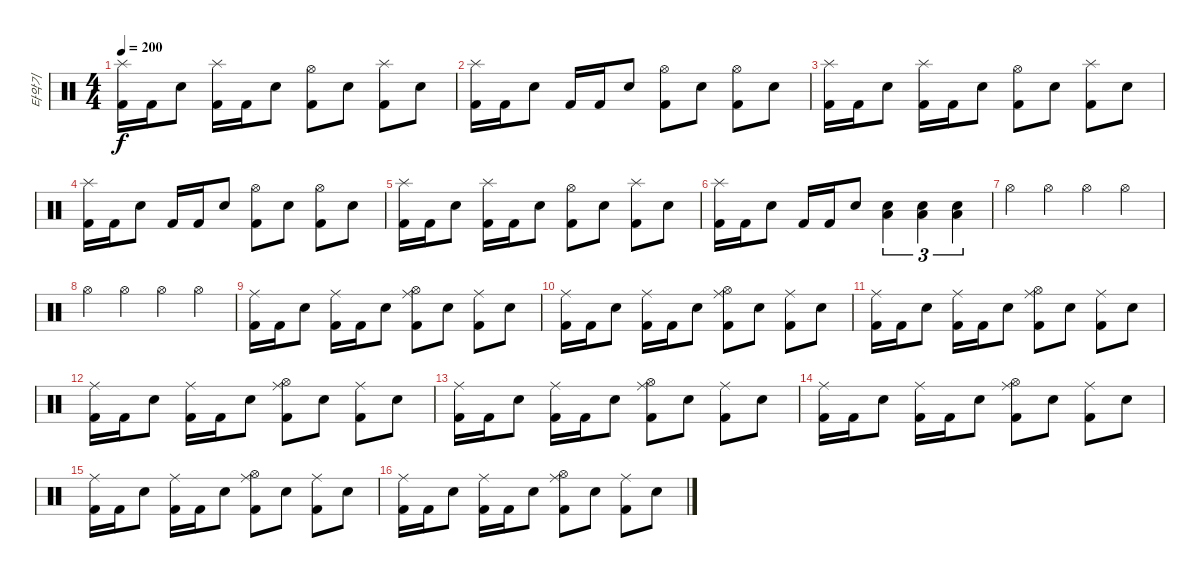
\track ("타악기" "타악기") {instrument percussion}
\staff {score}
\articulation defaults
\ts (4 4)
\tempo 200
\clef neutral
\ks c
("Splash (hit)" "Kick (hit) 2").16{dy f} "Kick (hit) 2".16 "Snare (hit) 2".8 ("Splash (hit)" "Kick (hit) 2").16 "Kick (hit) 2".16 "Snare (hit) 2".8 ("Hi-Hat (open)" "Kick (hit) 2").8 "Snare (hit) 2".8 ("Splash (hit)" "Kick (hit) 2").8 "Snare (hit) 2".8 |
("Splash (hit)" "Kick (hit) 2").16 "Kick (hit) 2".16 "Snare (hit) 2".8 "Kick (hit) 2".16 "Kick (hit) 2".16 "Snare (hit) 2".8 ("Hi-Hat (open)" "Kick (hit) 2").8 "Snare (hit) 2".8 ("Hi-Hat (open)" "Kick (hit) 2").8 "Snare (hit) 2".8 |
("Splash (hit)" "Kick (hit) 2").16 "Kick (hit) 2".16 "Snare (hit) 2".8 ("Splash (hit)" "Kick (hit) 2").16 "Kick (hit) 2".16 "Snare (hit) 2".8 ("Hi-Hat (open)" "Kick (hit) 2").8 "Snare (hit) 2".8 ("Splash (hit)" "Kick (hit) 2").8 "Snare (hit) 2".8 |
("Splash (hit)" "Kick (hit) 2").16 "Kick (hit) 2".16 "Snare (hit) 2".8 "Kick (hit) 2".16 "Kick (hit) 2".16 "Snare (hit) 2".8 ("Hi-Hat (open)" "Kick (hit) 2").8 "Snare (hit) 2".8 ("Hi-Hat (open)" "Kick (hit) 2").8 "Snare (hit) 2".8 |
("Splash (hit)" "Kick (hit) 2").16 "Kick (hit) 2".16 "Snare (hit) 2".8 ("Splash (hit)" "Kick (hit) 2").16 "Kick (hit) 2".16 "Snare (hit) 2".8 ("Hi-Hat (open)" "Kick (hit) 2").8 "Snare (hit) 2".8 ("Splash (hit)" "Kick (hit) 2").8 "Snare (hit) 2".8 |
("Splash (hit)" "Kick (hit) 2").16 "Kick (hit) 2".16 "Snare (hit) 2".8 "Kick (hit) 2".16 "Kick (hit) 2".16 "Snare (hit) 2".8 ("Low Tom (hit)" "Snare (hit) 2").4{tu (3 2)} ("Low Tom (hit)" "Snare (hit) 2").4{tu (3 2)} ("Low Tom (hit)" "Snare (hit) 2").4{tu (3 2)} |
"Hi-Hat (open)".4 "Hi-Hat (open)".4 "Hi-Hat (open)".4 "Hi-Hat (open)".4 |
"Hi-Hat (open)".4 "Hi-Hat (open)".4 "Hi-Hat (open)".4 "Hi-Hat (open)".4 |
("Ride (middle)" "Kick (hit) 2").16 "Kick (hit) 2".16 "Snare (hit) 2".8 ("Ride (middle)" "Kick (hit) 2").16 "Kick (hit) 2".16 "Snare (hit) 2".8 ("Ride (middle)" "Hi-Hat (open)" "Kick (hit) 2").8 "Snare (hit) 2".8 ("Ride (middle)" "Kick (hit) 2").8 "Snare (hit) 2".8 |
("Ride (middle)" "Kick (hit) 2").16 "Kick (hit) 2".16 "Snare (hit) 2".8 ("Ride (middle)" "Kick (hit) 2").16 "Kick (hit) 2".16 "Snare (hit) 2".8 ("Ride (middle)" "Hi-Hat (open)" "Kick (hit) 2").8 "Snare (hit) 2".8 ("Ride (middle)" "Kick (hit) 2").8 "Snare (hit) 2".8 |
("Ride (middle)" "Kick (hit) 2").16 "Kick (hit) 2".16 "Snare (hit) 2".8 ("Ride (middle)" "Kick (hit) 2").16 "Kick (hit) 2".16 "Snare (hit) 2".8 ("Ride (middle)" "Hi-Hat (open)" "Kick (hit) 2").8 "Snare (hit) 2".8 ("Ride (middle)" "Kick (hit) 2").8 "Snare (hit) 2".8 |
("Ride (middle)" "Kick (hit) 2").16 "Kick (hit) 2".16 "Snare (hit) 2".8 ("Ride (middle)" "Kick (hit) 2").16 "Kick (hit) 2".16 "Snare (hit) 2".8 ("Ride (middle)" "Hi-Hat (open)" "Kick (hit) 2").8 "Snare (hit) 2".8 ("Ride (middle)" "Kick (hit) 2").8 "Snare (hit) 2".8 |
("Ride (middle)" "Kick (hit) 2").16 "Kick (hit) 2".16 "Snare (hit) 2".8 ("Ride (middle)" "Kick (hit) 2").16 "Kick (hit) 2".16 "Snare (hit) 2".8 ("Ride (middle)" "Hi-Hat (open)" "Kick (hit) 2").8 "Snare (hit) 2".8 ("Ride (middle)" "Kick (hit) 2").8 "Snare (hit) 2".8 |
("Ride (middle)" "Kick (hit) 2").16 "Kick (hit) 2".16 "Snare (hit) 2".8 ("Ride (middle)" "Kick (hit) 2").16 "Kick (hit) 2".16 "Snare (hit) 2".8 ("Ride (middle)" "Hi-Hat (open)" "Kick (hit) 2").8 "Snare (hit) 2".8 ("Ride (middle)" "Kick (hit) 2").8 "Snare (hit) 2".8 |
("Ride (middle)" "Kick (hit) 2").16 "Kick (hit) 2".16 "Snare (hit) 2".8 ("Ride (middle)" "Kick (hit) 2").16 "Kick (hit) 2".16 "Snare (hit) 2".8 ("Ride (middle)" "Hi-Hat (open)" "Kick (hit) 2").8 "Snare (hit) 2".8 ("Ride (middle)" "Kick (hit) 2").8 "Snare (hit) 2".8 |
("Ride (middle)" "Kick (hit) 2").16 "Kick (hit) 2".16 "Snare (hit) 2".8 ("Ride (middle)" "Kick (hit) 2").16 "Kick (hit) 2".16 "Snare (hit) 2".8 ("Ride (middle)" "Hi-Hat (open)" "Kick (hit) 2").8 "Snare (hit) 2".8 ("Ride (middle)" "Kick (hit) 2").8 "Snare (hit) 2".8
